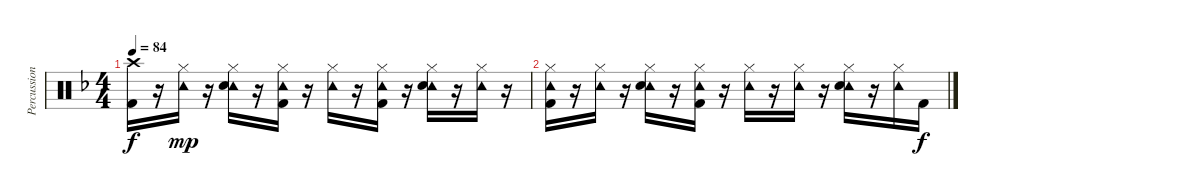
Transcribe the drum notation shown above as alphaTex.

\track ("Percussion" "Percussion") {instrument percussion}
\staff {score}
\articulation defaults
\ts (4 4)
\tempo 84
\clef neutral
\ks f
("Crash high (hit)" "Kick (hit) 2").16{dy f volume 3} r.16 ("Hi-Hat (closed)" "Tambourine (hit)").16{dy mp} r.16 ("Hi-Hat (closed)" "Tambourine (hit)" "Snare (hit) 2").16 r.16 ("Hi-Hat (closed)" "Tambourine (hit)" "Kick (hit) 2").16 r.16 ("Hi-Hat (closed)" "Tambourine (hit)").16 r.16 ("Hi-Hat (closed)" "Tambourine (hit)" "Kick (hit) 2").16 r.16 ("Hi-Hat (closed)" "Tambourine (hit)" "Snare (hit) 2").16 r.16 ("Hi-Hat (closed)" "Tambourine (hit)").16 r.16 |
("Hi-Hat (closed)" "Tambourine (hit)" "Kick (hit) 2").16{volume 2} r.16 ("Hi-Hat (closed)" "Tambourine (hit)").16 r.16 ("Hi-Hat (closed)" "Tambourine (hit)" "Snare (hit) 2").16 r.16 ("Hi-Hat (closed)" "Tambourine (hit)" "Kick (hit) 2").16 r.16 ("Hi-Hat (closed)" "Tambourine (hit)").16 r.16 ("Hi-Hat (closed)" "Tambourine (hit)").16 r.16 ("Hi-Hat (closed)" "Tambourine (hit)" "Snare (hit) 2").16 r.16 ("Hi-Hat (closed)" "Tambourine (hit)").16 "Kick (hit) 2".16{dy f}
